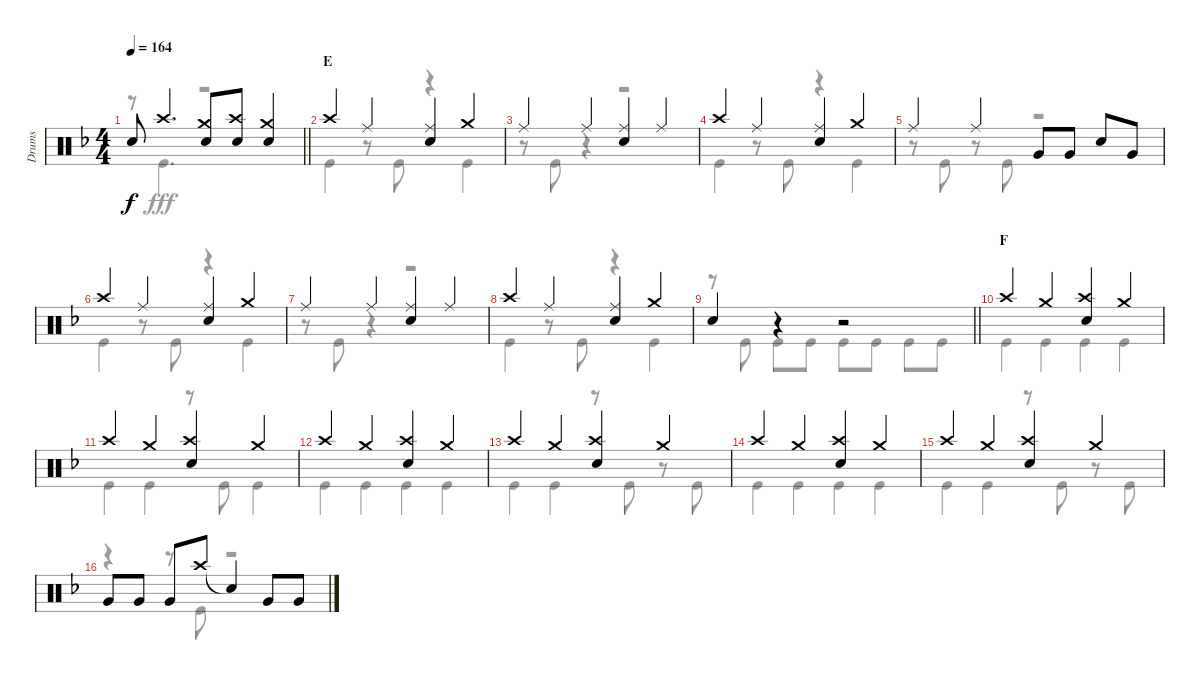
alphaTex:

\track ("Drums" "Drums") {instrument percussion}
\staff {score}
\articulation defaults
\voice
\ts (4 4)
\tempo 164
\clef neutral
\barLineRight lightlight
\ks f "Snare (hit)"{t}.8{dy f} "Crash high (hit)".4{d}
("Crash medium (hit)" "Snare (hit) 2").8 ("Crash high (hit)" "Snare (hit) 2").8 ("Crash medium (hit)" "Snare (hit) 2").4 |
\section ("" "E")
"Crash high (hit)".4 "Ride (middle)".4 ("Ride (middle)" "Snare (hit) 2").4 "Crash medium (hit)".4 |
"Ride (middle)".4 "Ride (middle)".4 ("Ride (middle)" "Snare (hit) 2").4 "Ride (middle)".4 |
"Crash high (hit)".4 "Ride (middle)".4 ("Ride (middle)" "Snare (hit) 2").4 "Crash medium (hit)".4 |
"Ride (middle)".4 "Ride (middle)".4 "Very Low Tom (hit)".8 "Very Low Tom (hit)".8 "Snare (hit) 2".8 "Very Low Tom (hit)".8 |
"Crash high (hit)".4 "Ride (middle)".4 ("Ride (middle)" "Snare (hit) 2").4 "Crash medium (hit)".4 |
"Ride (middle)".4 "Ride (middle)".4 ("Ride (middle)" "Snare (hit) 2").4 "Ride (middle)".4 |
"Crash high (hit)".4 "Ride (middle)".4 ("Ride (middle)" "Snare (hit) 2").4 "Crash medium (hit)".4 |
\barLineRight lightlight "Snare (hit) 2".4
r.4 r.2 |
\section ("" "F")
"Crash high (hit)".4 "Crash medium (hit)".4 ("Crash high (hit)" "Snare (hit) 2").4 "Crash medium (hit)".4 |
"Crash high (hit)".4 "Crash medium (hit)".4 ("Crash high (hit)" "Snare (hit) 2").4 "Crash medium (hit)".4 |
"Crash high (hit)".4 "Crash medium (hit)".4 ("Crash high (hit)" "Snare (hit) 2").4 "Crash medium (hit)".4 |
"Crash high (hit)".4 "Crash medium (hit)".4 ("Crash high (hit)" "Snare (hit) 2").4 "Crash medium (hit)".4 |
"Crash high (hit)".4 "Crash medium (hit)".4 ("Crash high (hit)" "Snare (hit) 2").4 "Crash medium (hit)".4 |
"Crash high (hit)".4 "Crash medium (hit)".4 ("Crash high (hit)" "Snare (hit) 2").4 "Crash medium (hit)".4 |
"Very Low Tom (hit)".8 "Very Low Tom (hit)".8 "Very Low Tom (hit)".8 "Crash high (hit)".8 "Snare (hit)"{t}.4 "Very Low Tom (hit)".8 "Very Low Tom (hit)".8
\voice
\clef neutral
\ottava regular
\simile none
\barLineRight lightlight
\ks f
r.8{dy fff} "Kick (hit)".4{d} r.2 |
"Kick (hit)".4 r.8 "Kick (hit)".8 r.4 "Kick (hit)".4 |
r.8 "Kick (hit)".8 r.4 r.2 |
"Kick (hit)".4 r.8 "Kick (hit)".8 r.4 "Kick (hit)".4 |
r.8 "Kick (hit)".8 r.8 "Kick (hit)".8 r.2 |
"Kick (hit)".4 r.8 "Kick (hit)".8 r.4 "Kick (hit)".4 |
r.8 "Kick (hit)".8 r.4 r.2 |
"Kick (hit)".4 r.8 "Kick (hit)".8 r.4 "Kick (hit)".4 |
\barLineRight lightlight
r.8 "Kick (hit)".8 "Kick (hit)".8 "Kick (hit)".8 "Kick (hit)".8 "Kick (hit)".8 "Kick (hit)".8 "Kick (hit)".8 |
"Kick (hit)".4 "Kick (hit)".4 "Kick (hit)".4 "Kick (hit)".4 |
"Kick (hit)".4 "Kick (hit)".4 r.8 "Kick (hit)".8 "Kick (hit)".4 |
"Kick (hit)".4 "Kick (hit)".4 "Kick (hit)".4 "Kick (hit)".4 |
"Kick (hit)".4 "Kick (hit)".4 r.8 "Kick (hit)".8 r.8 "Kick (hit)".8 |
"Kick (hit)".4 "Kick (hit)".4 "Kick (hit)".4 "Kick (hit)".4 |
"Kick (hit)".4 "Kick (hit)".4 r.8 "Kick (hit)".8 r.8 "Kick (hit)".8 |
r.4 r.8 "Kick (hit)".8 r.2
